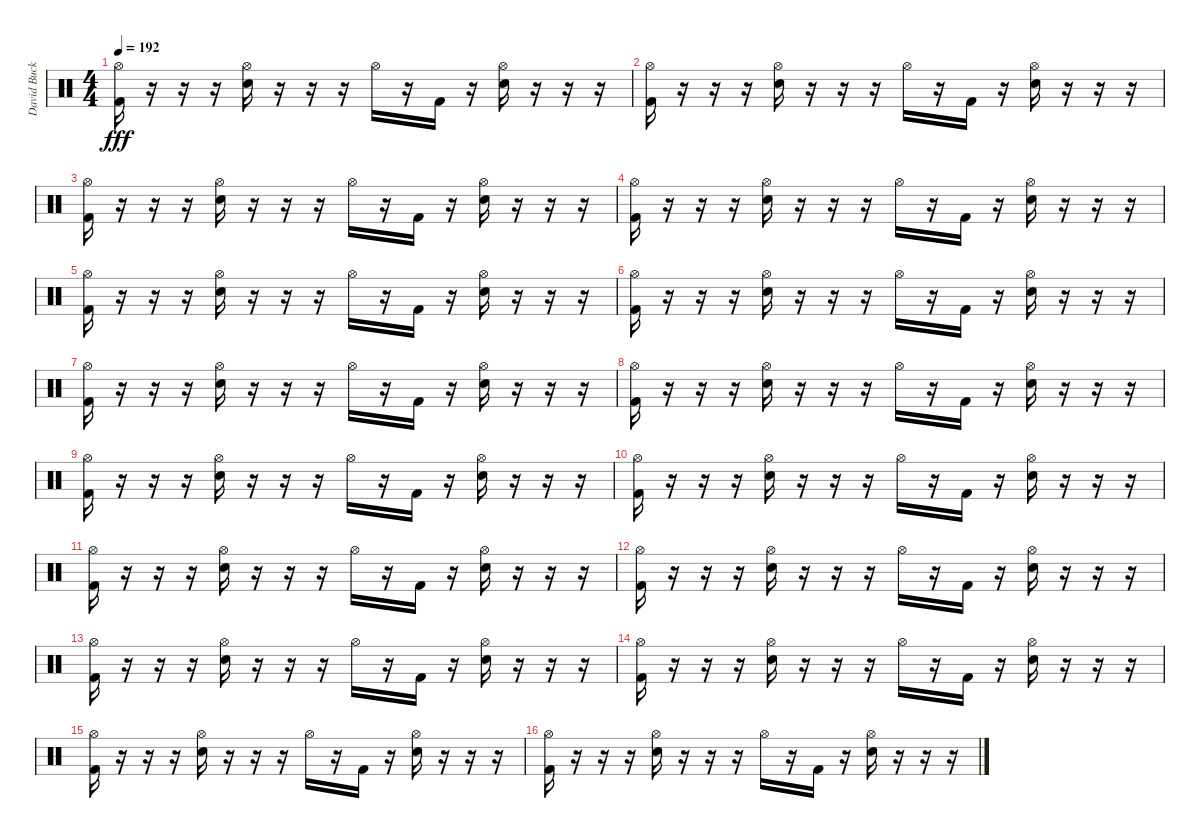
\track ("David Buckner" "David Buck") {instrument percussion}
\staff {score}
\articulation defaults
\ts (4 4)
\tempo 192
\clef neutral
\ks c
("Hi-Hat (open)" "Kick (hit) 2").16{dy fff} r.16 r.16 r.16 ("Hi-Hat (open)" "Electric Snare (hit)").16 r.16 r.16 r.16 "Hi-Hat (open)".16 r.16 "Kick (hit) 2".16 r.16 ("Hi-Hat (open)" "Electric Snare (hit)").16 r.16 r.16 r.16 |
("Hi-Hat (open)" "Kick (hit) 2").16 r.16 r.16 r.16 ("Hi-Hat (open)" "Electric Snare (hit)").16 r.16 r.16 r.16 "Hi-Hat (open)".16 r.16 "Kick (hit) 2".16 r.16 ("Hi-Hat (open)" "Electric Snare (hit)").16 r.16 r.16 r.16 |
("Hi-Hat (open)" "Kick (hit) 2").16 r.16 r.16 r.16 ("Hi-Hat (open)" "Electric Snare (hit)").16 r.16 r.16 r.16 "Hi-Hat (open)".16 r.16 "Kick (hit) 2".16 r.16 ("Hi-Hat (open)" "Electric Snare (hit)").16 r.16 r.16 r.16 |
("Hi-Hat (open)" "Kick (hit) 2").16 r.16 r.16 r.16 ("Hi-Hat (open)" "Electric Snare (hit)").16 r.16 r.16 r.16 "Hi-Hat (open)".16 r.16 "Kick (hit) 2".16 r.16 ("Hi-Hat (open)" "Electric Snare (hit)").16 r.16 r.16 r.16 |
("Hi-Hat (open)" "Kick (hit) 2").16 r.16 r.16 r.16 ("Hi-Hat (open)" "Electric Snare (hit)").16 r.16 r.16 r.16 "Hi-Hat (open)".16 r.16 "Kick (hit) 2".16 r.16 ("Hi-Hat (open)" "Electric Snare (hit)").16 r.16 r.16 r.16 |
("Hi-Hat (open)" "Kick (hit) 2").16 r.16 r.16 r.16 ("Hi-Hat (open)" "Electric Snare (hit)").16 r.16 r.16 r.16 "Hi-Hat (open)".16 r.16 "Kick (hit) 2".16 r.16 ("Hi-Hat (open)" "Electric Snare (hit)").16 r.16 r.16 r.16 |
("Hi-Hat (open)" "Kick (hit) 2").16 r.16 r.16 r.16 ("Hi-Hat (open)" "Electric Snare (hit)").16 r.16 r.16 r.16 "Hi-Hat (open)".16 r.16 "Kick (hit) 2".16 r.16 ("Hi-Hat (open)" "Electric Snare (hit)").16 r.16 r.16 r.16 |
("Hi-Hat (open)" "Kick (hit) 2").16 r.16 r.16 r.16 ("Hi-Hat (open)" "Electric Snare (hit)").16 r.16 r.16 r.16 "Hi-Hat (open)".16 r.16 "Kick (hit) 2".16 r.16 ("Hi-Hat (open)" "Electric Snare (hit)").16 r.16 r.16 r.16 |
("Hi-Hat (open)" "Kick (hit) 2").16 r.16 r.16 r.16 ("Hi-Hat (open)" "Electric Snare (hit)").16 r.16 r.16 r.16 "Hi-Hat (open)".16 r.16 "Kick (hit) 2".16 r.16 ("Hi-Hat (open)" "Electric Snare (hit)").16 r.16 r.16 r.16 |
("Hi-Hat (open)" "Kick (hit) 2").16 r.16 r.16 r.16 ("Hi-Hat (open)" "Electric Snare (hit)").16 r.16 r.16 r.16 "Hi-Hat (open)".16 r.16 "Kick (hit) 2".16 r.16 ("Hi-Hat (open)" "Electric Snare (hit)").16 r.16 r.16 r.16 |
("Hi-Hat (open)" "Kick (hit) 2").16 r.16 r.16 r.16 ("Hi-Hat (open)" "Electric Snare (hit)").16 r.16 r.16 r.16 "Hi-Hat (open)".16 r.16 "Kick (hit) 2".16 r.16 ("Hi-Hat (open)" "Electric Snare (hit)").16 r.16 r.16 r.16 |
("Hi-Hat (open)" "Kick (hit) 2").16 r.16 r.16 r.16 ("Hi-Hat (open)" "Electric Snare (hit)").16 r.16 r.16 r.16 "Hi-Hat (open)".16 r.16 "Kick (hit) 2".16 r.16 ("Hi-Hat (open)" "Electric Snare (hit)").16 r.16 r.16 r.16 |
("Hi-Hat (open)" "Kick (hit) 2").16 r.16 r.16 r.16 ("Hi-Hat (open)" "Electric Snare (hit)").16 r.16 r.16 r.16 "Hi-Hat (open)".16 r.16 "Kick (hit) 2".16 r.16 ("Hi-Hat (open)" "Electric Snare (hit)").16 r.16 r.16 r.16 |
("Hi-Hat (open)" "Kick (hit) 2").16 r.16 r.16 r.16 ("Hi-Hat (open)" "Electric Snare (hit)").16 r.16 r.16 r.16 "Hi-Hat (open)".16 r.16 "Kick (hit) 2".16 r.16 ("Hi-Hat (open)" "Electric Snare (hit)").16 r.16 r.16 r.16 |
("Hi-Hat (open)" "Kick (hit) 2").16 r.16 r.16 r.16 ("Hi-Hat (open)" "Electric Snare (hit)").16 r.16 r.16 r.16 "Hi-Hat (open)".16 r.16 "Kick (hit) 2".16 r.16 ("Hi-Hat (open)" "Electric Snare (hit)").16 r.16 r.16 r.16 |
("Hi-Hat (open)" "Kick (hit) 2").16 r.16 r.16 r.16 ("Hi-Hat (open)" "Electric Snare (hit)").16 r.16 r.16 r.16 "Hi-Hat (open)".16 r.16 "Kick (hit) 2".16 r.16 ("Hi-Hat (open)" "Electric Snare (hit)").16 r.16 r.16 r.16
